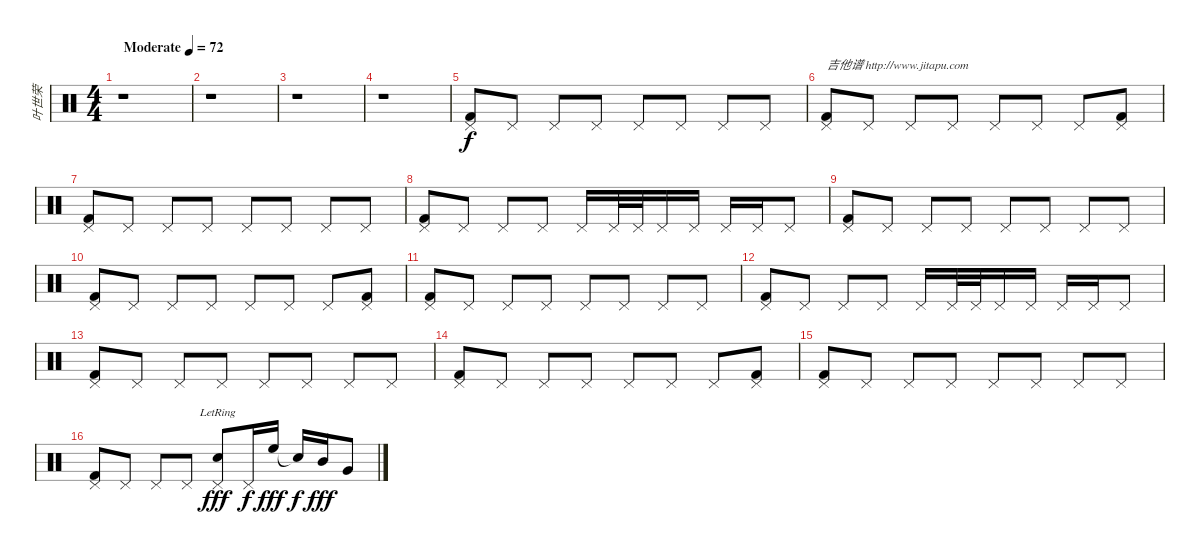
\track ("叶世荣" "叶世荣") {instrument percussion}
\staff {score}
\articulation defaults
\ts (4 4)
\tempo (72 "Moderate")
\clef neutral
\ks c
r.1{dy f} |
r.1 |
r.1 |
r.1 |
("Pedal Hi-Hat (hit)" "Kick (hit) 2").8 "Pedal Hi-Hat (hit)".8 "Pedal Hi-Hat (hit)".8 "Pedal Hi-Hat (hit)".8 "Pedal Hi-Hat (hit)".8 "Pedal Hi-Hat (hit)".8 "Pedal Hi-Hat (hit)".8 "Pedal Hi-Hat (hit)".8 |
("Pedal Hi-Hat (hit)" "Kick (hit) 2").8{txt "吉他谱 http://www.jitapu.com"} "Pedal Hi-Hat (hit)".8 "Pedal Hi-Hat (hit)".8 "Pedal Hi-Hat (hit)".8 "Pedal Hi-Hat (hit)".8 "Pedal Hi-Hat (hit)".8 "Pedal Hi-Hat (hit)".8 ("Pedal Hi-Hat (hit)" "Kick (hit) 2").8 |
("Pedal Hi-Hat (hit)" "Kick (hit) 2").8 "Pedal Hi-Hat (hit)".8 "Pedal Hi-Hat (hit)".8 "Pedal Hi-Hat (hit)".8 "Pedal Hi-Hat (hit)".8 "Pedal Hi-Hat (hit)".8 "Pedal Hi-Hat (hit)".8 "Pedal Hi-Hat (hit)".8 |
("Pedal Hi-Hat (hit)" "Kick (hit) 2").8 "Pedal Hi-Hat (hit)".8 "Pedal Hi-Hat (hit)".8 "Pedal Hi-Hat (hit)".8 "Pedal Hi-Hat (hit)".16 "Pedal Hi-Hat (hit)".32 "Pedal Hi-Hat (hit)".32 "Pedal Hi-Hat (hit)".16 "Pedal Hi-Hat (hit)".16 "Pedal Hi-Hat (hit)".16 "Pedal Hi-Hat (hit)".16 "Pedal Hi-Hat (hit)".8 |
("Pedal Hi-Hat (hit)" "Kick (hit) 2").8 "Pedal Hi-Hat (hit)".8 "Pedal Hi-Hat (hit)".8 "Pedal Hi-Hat (hit)".8 "Pedal Hi-Hat (hit)".8 "Pedal Hi-Hat (hit)".8 "Pedal Hi-Hat (hit)".8 "Pedal Hi-Hat (hit)".8 |
("Pedal Hi-Hat (hit)" "Kick (hit) 2").8 "Pedal Hi-Hat (hit)".8 "Pedal Hi-Hat (hit)".8 "Pedal Hi-Hat (hit)".8 "Pedal Hi-Hat (hit)".8 "Pedal Hi-Hat (hit)".8 "Pedal Hi-Hat (hit)".8 ("Pedal Hi-Hat (hit)" "Kick (hit) 2").8 |
("Pedal Hi-Hat (hit)" "Kick (hit) 2").8 "Pedal Hi-Hat (hit)".8 "Pedal Hi-Hat (hit)".8 "Pedal Hi-Hat (hit)".8 "Pedal Hi-Hat (hit)".8 "Pedal Hi-Hat (hit)".8 "Pedal Hi-Hat (hit)".8 "Pedal Hi-Hat (hit)".8 |
("Pedal Hi-Hat (hit)" "Kick (hit) 2").8 "Pedal Hi-Hat (hit)".8 "Pedal Hi-Hat (hit)".8 "Pedal Hi-Hat (hit)".8 "Pedal Hi-Hat (hit)".16 "Pedal Hi-Hat (hit)".32 "Pedal Hi-Hat (hit)".32 "Pedal Hi-Hat (hit)".16 "Pedal Hi-Hat (hit)".16 "Pedal Hi-Hat (hit)".16 "Pedal Hi-Hat (hit)".16 "Pedal Hi-Hat (hit)".8 |
("Pedal Hi-Hat (hit)" "Kick (hit) 2").8 "Pedal Hi-Hat (hit)".8 "Pedal Hi-Hat (hit)".8 "Pedal Hi-Hat (hit)".8 "Pedal Hi-Hat (hit)".8 "Pedal Hi-Hat (hit)".8 "Pedal Hi-Hat (hit)".8 "Pedal Hi-Hat (hit)".8 |
("Pedal Hi-Hat (hit)" "Kick (hit) 2").8 "Pedal Hi-Hat (hit)".8 "Pedal Hi-Hat (hit)".8 "Pedal Hi-Hat (hit)".8 "Pedal Hi-Hat (hit)".8 "Pedal Hi-Hat (hit)".8 "Pedal Hi-Hat (hit)".8 ("Pedal Hi-Hat (hit)" "Kick (hit) 2").8 |
("Pedal Hi-Hat (hit)" "Kick (hit) 2").8 "Pedal Hi-Hat (hit)".8 "Pedal Hi-Hat (hit)".8 "Pedal Hi-Hat (hit)".8 "Pedal Hi-Hat (hit)".8 "Pedal Hi-Hat (hit)".8 "Pedal Hi-Hat (hit)".8 "Pedal Hi-Hat (hit)".8 |
("Pedal Hi-Hat (hit)" "Kick (hit) 2").8 "Pedal Hi-Hat (hit)".8 "Pedal Hi-Hat (hit)".8 "Pedal Hi-Hat (hit)".8 ("Pedal Hi-Hat (hit)" "Electric Snare (hit)"{lr}).8{dy fff} "Pedal Hi-Hat (hit)".16{dy f} "High Floor Tom (hit)".16{dy fff} "Snare (hit)"{t}.16{dy f} "Mid Tom (hit)".16{dy fff} "Very Low Tom (hit)".8
